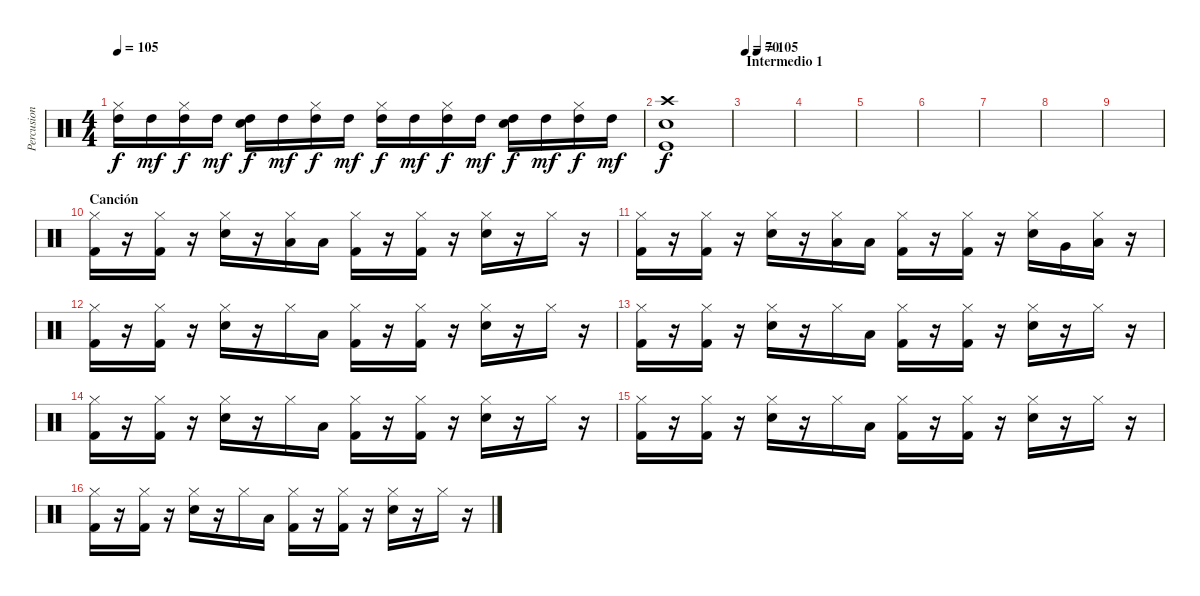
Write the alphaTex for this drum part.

\track ("Percusion" "Percusion") {instrument percussion}
\staff {score}
\articulation defaults
\ts (4 4)
\tempo 105
\clef neutral
\ks c
("Hi-Hat (closed)" "High Tom (hit)").16{dy f} "High Tom (hit)".16{dy mf} ("Hi-Hat (closed)" "High Tom (hit)").16{dy f} "High Tom (hit)".16{dy mf} ("Snare (hit) 2" "High Tom (hit)").16{dy f} "High Tom (hit)".16{dy mf} ("Hi-Hat (closed)" "High Tom (hit)").16{dy f} "High Tom (hit)".16{dy mf} ("Hi-Hat (closed)" "High Tom (hit)").16{dy f} "High Tom (hit)".16{dy mf} ("Hi-Hat (closed)" "High Tom (hit)").16{dy f} "High Tom (hit)".16{dy mf} ("Snare (hit) 2" "High Tom (hit)").16{dy f} "High Tom (hit)".16{dy mf} ("Hi-Hat (closed)" "High Tom (hit)").16{dy f} "High Tom (hit)".16{dy mf} |
("Crash high (hit)" "Kick (hit)" "Snare (hit) 2").1{dy f} |
\section ("" "Intermedio 1")
\tempo 70
\tempo (105 0.25)
|
|
|
|
|
|
|
\section ("" "Canción")
("Hi-Hat (closed)" "Kick (hit) 2").16 r.16 ("Hi-Hat (closed)" "Kick (hit) 2").16 r.16 ("Hi-Hat (closed)" "Snare (hit) 2").16 r.16 ("Hi-Hat (closed)" "Low Floor Tom (hit)").16 "Low Tom (hit)".16 ("Hi-Hat (closed)" "Kick (hit) 2").16 r.16 ("Hi-Hat (closed)" "Kick (hit) 2").16 r.16 ("Hi-Hat (closed)" "Snare (hit) 2").16 r.16 "Hi-Hat (closed)".16 r.16 |
("Hi-Hat (closed)" "Kick (hit) 2").16 r.16 ("Hi-Hat (closed)" "Kick (hit) 2").16 r.16 ("Hi-Hat (closed)" "Snare (hit) 2").16 r.16 ("Hi-Hat (closed)" "Low Floor Tom (hit)").16 "Low Tom (hit)".16 ("Hi-Hat (closed)" "Kick (hit) 2").16 r.16 ("Hi-Hat (closed)" "Kick (hit) 2").16 r.16 ("Hi-Hat (closed)" "Snare (hit) 2").16 "Very Low Tom (hit)".16 ("Hi-Hat (closed)" "Low Floor Tom (hit)").16 r.16 |
("Hi-Hat (closed)" "Kick (hit) 2").16 r.16 ("Hi-Hat (closed)" "Kick (hit) 2").16 r.16 ("Hi-Hat (closed)" "Snare (hit) 2").16 r.16 "Hi-Hat (closed)".16 "Low Floor Tom (hit)".16 ("Hi-Hat (closed)" "Kick (hit) 2").16 r.16 ("Hi-Hat (closed)" "Kick (hit) 2").16 r.16 ("Hi-Hat (closed)" "Snare (hit) 2").16 r.16 "Hi-Hat (closed)".16 r.16 |
("Hi-Hat (closed)" "Kick (hit) 2").16 r.16 ("Hi-Hat (closed)" "Kick (hit) 2").16 r.16 ("Hi-Hat (closed)" "Snare (hit) 2").16 r.16 "Hi-Hat (closed)".16 "Low Floor Tom (hit)".16 ("Hi-Hat (closed)" "Kick (hit) 2").16 r.16 ("Hi-Hat (closed)" "Kick (hit) 2").16 r.16 ("Hi-Hat (closed)" "Snare (hit) 2").16 r.16 "Hi-Hat (closed)".16 r.16 |
("Hi-Hat (closed)" "Kick (hit) 2").16 r.16 ("Hi-Hat (closed)" "Kick (hit) 2").16 r.16 ("Hi-Hat (closed)" "Snare (hit) 2").16 r.16 "Hi-Hat (closed)".16 "Low Floor Tom (hit)".16 ("Hi-Hat (closed)" "Kick (hit) 2").16 r.16 ("Hi-Hat (closed)" "Kick (hit) 2").16 r.16 ("Hi-Hat (closed)" "Snare (hit) 2").16 r.16 "Hi-Hat (closed)".16 r.16 |
("Hi-Hat (closed)" "Kick (hit) 2").16 r.16 ("Hi-Hat (closed)" "Kick (hit) 2").16 r.16 ("Hi-Hat (closed)" "Snare (hit) 2").16 r.16 "Hi-Hat (closed)".16 "Low Floor Tom (hit)".16 ("Hi-Hat (closed)" "Kick (hit) 2").16 r.16 ("Hi-Hat (closed)" "Kick (hit) 2").16 r.16 ("Hi-Hat (closed)" "Snare (hit) 2").16 r.16 "Hi-Hat (closed)".16 r.16 |
("Hi-Hat (closed)" "Kick (hit) 2").16 r.16 ("Hi-Hat (closed)" "Kick (hit) 2").16 r.16 ("Hi-Hat (closed)" "Snare (hit) 2").16 r.16 "Hi-Hat (closed)".16 "Low Floor Tom (hit)".16 ("Hi-Hat (closed)" "Kick (hit) 2").16 r.16 ("Hi-Hat (closed)" "Kick (hit) 2").16 r.16 ("Hi-Hat (closed)" "Snare (hit) 2").16 r.16 "Hi-Hat (closed)".16 r.16
